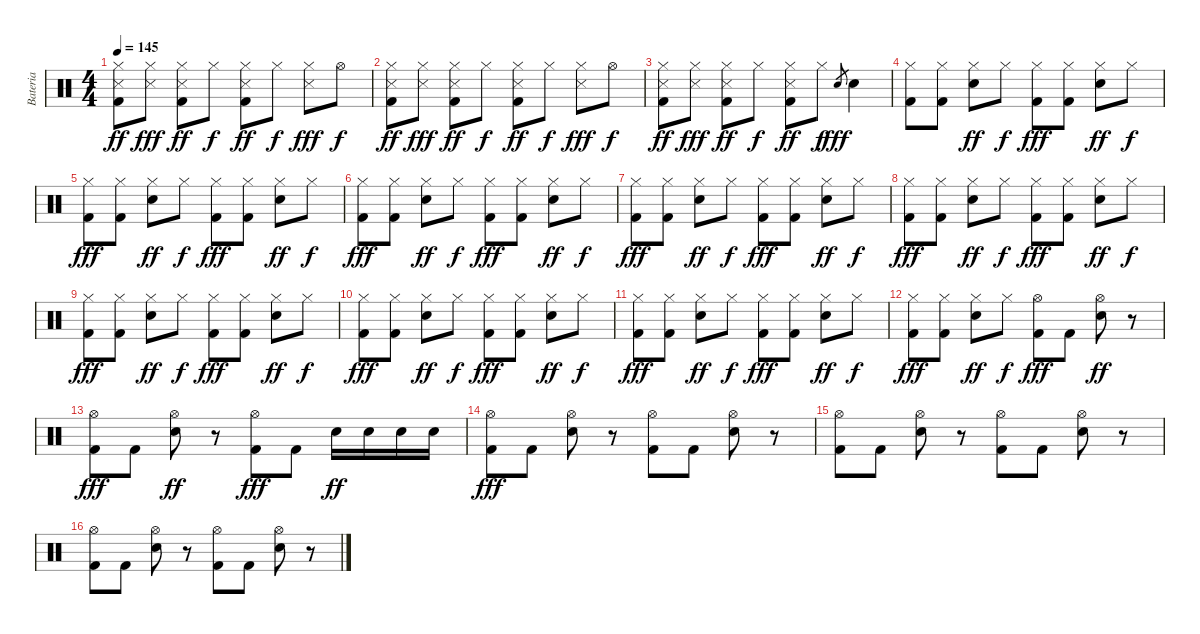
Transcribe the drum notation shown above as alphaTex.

\track ("Bateria" "Bateria") {instrument percussion}
\staff {score}
\articulation defaults
\ts (4 4)
\tempo 145
\clef neutral
\ks c
("Hi-Hat (closed)" "Snare (side stick) 3" "Kick (hit) 2").8{dy ff} ("Hi-Hat (closed)" "Snare (side stick) 3").8{dy fff} ("Hi-Hat (closed)" "Snare (side stick) 3" "Kick (hit) 2").8{dy ff} "Hi-Hat (closed)".8{dy f} ("Hi-Hat (closed)" "Snare (side stick) 3" "Kick (hit) 2").8{dy ff} "Hi-Hat (closed)".8{dy f} ("Hi-Hat (closed)" "Snare (side stick) 3").8{dy fff} "Hi-Hat (open)".8{dy f} |
("Hi-Hat (closed)" "Snare (side stick) 3" "Kick (hit) 2").8{dy ff} ("Hi-Hat (closed)" "Snare (side stick) 3").8{dy fff} ("Hi-Hat (closed)" "Snare (side stick) 3" "Kick (hit) 2").8{dy ff} "Hi-Hat (closed)".8{dy f} ("Hi-Hat (closed)" "Snare (side stick) 3" "Kick (hit) 2").8{dy ff} "Hi-Hat (closed)".8{dy f} ("Hi-Hat (closed)" "Snare (side stick) 3").8{dy fff} "Hi-Hat (open)".8{dy f} |
("Hi-Hat (closed)" "Snare (side stick) 3" "Kick (hit) 2").8{dy ff} ("Hi-Hat (closed)" "Snare (side stick) 3").8{dy fff} ("Hi-Hat (closed)" "Snare (side stick) 3" "Kick (hit) 2").8{dy ff} "Hi-Hat (closed)".8{dy f} ("Hi-Hat (closed)" "Snare (side stick) 3" "Kick (hit) 2").8{dy ff} "Hi-Hat (closed)".8{dy f} "Electric Snare (hit)".8{gr dy fff} "Electric Snare (hit)".4 |
("Hi-Hat (closed)" "Kick (hit) 2").8 ("Hi-Hat (closed)" "Kick (hit) 2").8 ("Hi-Hat (closed)" "Electric Snare (hit)").8{dy ff} "Hi-Hat (closed)".8{dy f} ("Hi-Hat (closed)" "Kick (hit) 2").8{dy fff} ("Hi-Hat (closed)" "Kick (hit) 2").8 ("Hi-Hat (closed)" "Electric Snare (hit)").8{dy ff} "Hi-Hat (closed)".8{dy f} |
("Hi-Hat (closed)" "Kick (hit) 2").8{dy fff} ("Hi-Hat (closed)" "Kick (hit) 2").8 ("Hi-Hat (closed)" "Electric Snare (hit)").8{dy ff} "Hi-Hat (closed)".8{dy f} ("Hi-Hat (closed)" "Kick (hit) 2").8{dy fff} ("Hi-Hat (closed)" "Kick (hit) 2").8 ("Hi-Hat (closed)" "Electric Snare (hit)").8{dy ff} "Hi-Hat (closed)".8{dy f} |
("Hi-Hat (closed)" "Kick (hit) 2").8{dy fff} ("Hi-Hat (closed)" "Kick (hit) 2").8 ("Hi-Hat (closed)" "Electric Snare (hit)").8{dy ff} "Hi-Hat (closed)".8{dy f} ("Hi-Hat (closed)" "Kick (hit) 2").8{dy fff} ("Hi-Hat (closed)" "Kick (hit) 2").8 ("Hi-Hat (closed)" "Electric Snare (hit)").8{dy ff} "Hi-Hat (closed)".8{dy f} |
("Hi-Hat (closed)" "Kick (hit) 2").8{dy fff} ("Hi-Hat (closed)" "Kick (hit) 2").8 ("Hi-Hat (closed)" "Electric Snare (hit)").8{dy ff} "Hi-Hat (closed)".8{dy f} ("Hi-Hat (closed)" "Kick (hit) 2").8{dy fff} ("Hi-Hat (closed)" "Kick (hit) 2").8 ("Hi-Hat (closed)" "Electric Snare (hit)").8{dy ff} "Hi-Hat (closed)".8{dy f} |
("Hi-Hat (closed)" "Kick (hit) 2").8{dy fff} ("Hi-Hat (closed)" "Kick (hit) 2").8 ("Hi-Hat (closed)" "Electric Snare (hit)").8{dy ff} "Hi-Hat (closed)".8{dy f} ("Hi-Hat (closed)" "Kick (hit) 2").8{dy fff} ("Hi-Hat (closed)" "Kick (hit) 2").8 ("Hi-Hat (closed)" "Electric Snare (hit)").8{dy ff} "Hi-Hat (closed)".8{dy f} |
("Hi-Hat (closed)" "Kick (hit) 2").8{dy fff} ("Hi-Hat (closed)" "Kick (hit) 2").8 ("Hi-Hat (closed)" "Electric Snare (hit)").8{dy ff} "Hi-Hat (closed)".8{dy f} ("Hi-Hat (closed)" "Kick (hit) 2").8{dy fff} ("Hi-Hat (closed)" "Kick (hit) 2").8 ("Hi-Hat (closed)" "Electric Snare (hit)").8{dy ff} "Hi-Hat (closed)".8{dy f} |
("Hi-Hat (closed)" "Kick (hit) 2").8{dy fff} ("Hi-Hat (closed)" "Kick (hit) 2").8 ("Hi-Hat (closed)" "Electric Snare (hit)").8{dy ff} "Hi-Hat (closed)".8{dy f} ("Hi-Hat (closed)" "Kick (hit) 2").8{dy fff} ("Hi-Hat (closed)" "Kick (hit) 2").8 ("Hi-Hat (closed)" "Electric Snare (hit)").8{dy ff} "Hi-Hat (closed)".8{dy f} |
("Hi-Hat (closed)" "Kick (hit) 2").8{dy fff} ("Hi-Hat (closed)" "Kick (hit) 2").8 ("Hi-Hat (closed)" "Electric Snare (hit)").8{dy ff} "Hi-Hat (closed)".8{dy f} ("Hi-Hat (closed)" "Kick (hit) 2").8{dy fff} ("Hi-Hat (closed)" "Kick (hit) 2").8 ("Hi-Hat (closed)" "Electric Snare (hit)").8{dy ff} "Hi-Hat (closed)".8{dy f} |
("Hi-Hat (closed)" "Kick (hit) 2").8{dy fff} ("Hi-Hat (closed)" "Kick (hit) 2").8 ("Hi-Hat (closed)" "Electric Snare (hit)").8{dy ff} "Hi-Hat (closed)".8{dy f} ("Hi-Hat (open)" "Kick (hit) 2").8{dy fff} "Kick (hit) 2".8 ("Hi-Hat (open)" "Electric Snare (hit)").8{dy ff} r.8 |
("Hi-Hat (open)" "Kick (hit) 2").8{dy fff} "Kick (hit) 2".8 ("Hi-Hat (open)" "Electric Snare (hit)").8{dy ff} r.8 ("Hi-Hat (open)" "Kick (hit) 2").8{dy fff} "Kick (hit) 2".8 "Electric Snare (hit)".16{dy ff} "Electric Snare (hit)".16 "Electric Snare (hit)".16 "Electric Snare (hit)".16 |
("Hi-Hat (open)" "Kick (hit) 2").8{dy fff} "Kick (hit) 2".8 ("Hi-Hat (open)" "Electric Snare (hit)").8 r.8 ("Hi-Hat (open)" "Kick (hit) 2").8 "Kick (hit) 2".8 ("Hi-Hat (open)" "Electric Snare (hit)").8 r.8 |
("Hi-Hat (open)" "Kick (hit) 2").8 "Kick (hit) 2".8 ("Hi-Hat (open)" "Electric Snare (hit)").8 r.8 ("Hi-Hat (open)" "Kick (hit) 2").8 "Kick (hit) 2".8 ("Hi-Hat (open)" "Electric Snare (hit)").8 r.8 |
("Hi-Hat (open)" "Kick (hit) 2").8 "Kick (hit) 2".8 ("Hi-Hat (open)" "Electric Snare (hit)").8 r.8 ("Hi-Hat (open)" "Kick (hit) 2").8 "Kick (hit) 2".8 ("Hi-Hat (open)" "Electric Snare (hit)").8 r.8
